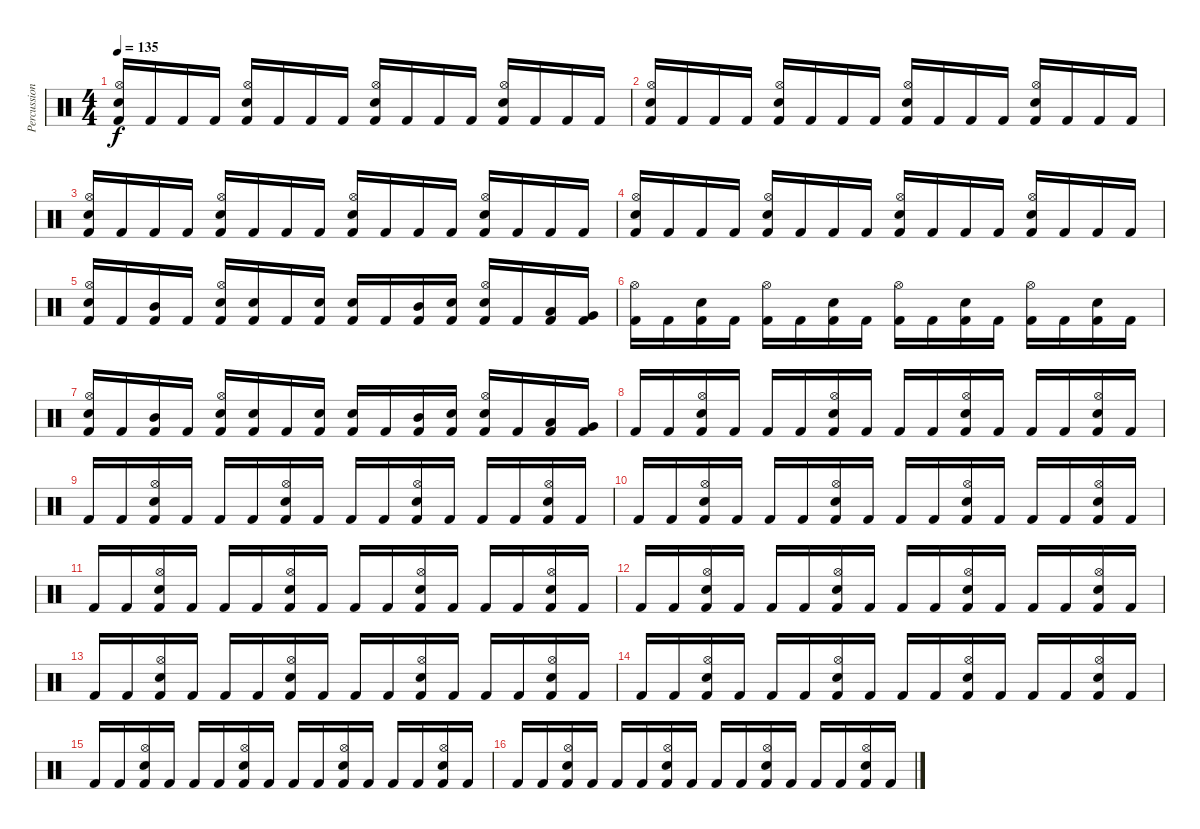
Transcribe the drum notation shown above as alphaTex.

\track ("Percussions" "Percussion") {instrument percussion}
\staff {score}
\articulation defaults
\ts (4 4)
\tempo 135
\clef neutral
\ks c
("Snare (hit) 2" "Hi-Hat (open)" "Kick (hit) 2").16{dy f} "Kick (hit) 2".16 "Kick (hit) 2".16 "Kick (hit) 2".16 ("Snare (hit) 2" "Hi-Hat (open)" "Kick (hit) 2").16 "Kick (hit) 2".16 "Kick (hit) 2".16 "Kick (hit) 2".16 ("Snare (hit) 2" "Hi-Hat (open)" "Kick (hit) 2").16 "Kick (hit) 2".16 "Kick (hit) 2".16 "Kick (hit) 2".16 ("Snare (hit) 2" "Hi-Hat (open)" "Kick (hit) 2").16 "Kick (hit) 2".16 "Kick (hit) 2".16 "Kick (hit) 2".16 |
("Snare (hit) 2" "Hi-Hat (open)" "Kick (hit) 2").16 "Kick (hit) 2".16 "Kick (hit) 2".16 "Kick (hit) 2".16 ("Snare (hit) 2" "Hi-Hat (open)" "Kick (hit) 2").16 "Kick (hit) 2".16 "Kick (hit) 2".16 "Kick (hit) 2".16 ("Snare (hit) 2" "Hi-Hat (open)" "Kick (hit) 2").16 "Kick (hit) 2".16 "Kick (hit) 2".16 "Kick (hit) 2".16 ("Snare (hit) 2" "Hi-Hat (open)" "Kick (hit) 2").16 "Kick (hit) 2".16 "Kick (hit) 2".16 "Kick (hit) 2".16 |
("Snare (hit) 2" "Hi-Hat (open)" "Kick (hit) 2").16 "Kick (hit) 2".16 "Kick (hit) 2".16 "Kick (hit) 2".16 ("Snare (hit) 2" "Hi-Hat (open)" "Kick (hit) 2").16 "Kick (hit) 2".16 "Kick (hit) 2".16 "Kick (hit) 2".16 ("Snare (hit) 2" "Hi-Hat (open)" "Kick (hit) 2").16 "Kick (hit) 2".16 "Kick (hit) 2".16 "Kick (hit) 2".16 ("Snare (hit) 2" "Hi-Hat (open)" "Kick (hit) 2").16 "Kick (hit) 2".16 "Kick (hit) 2".16 "Kick (hit) 2".16 |
("Snare (hit) 2" "Hi-Hat (open)" "Kick (hit) 2").16 "Kick (hit) 2".16 "Kick (hit) 2".16 "Kick (hit) 2".16 ("Snare (hit) 2" "Hi-Hat (open)" "Kick (hit) 2").16 "Kick (hit) 2".16 "Kick (hit) 2".16 "Kick (hit) 2".16 ("Snare (hit) 2" "Hi-Hat (open)" "Kick (hit) 2").16 "Kick (hit) 2".16 "Kick (hit) 2".16 "Kick (hit) 2".16 ("Snare (hit) 2" "Hi-Hat (open)" "Kick (hit) 2").16 "Kick (hit) 2".16 "Kick (hit) 2".16 "Kick (hit) 2".16 |
("Snare (hit) 2" "Hi-Hat (open)" "Kick (hit) 2").16 "Kick (hit) 2".16 ("Mid Tom (hit)" "Kick (hit) 2").16 "Kick (hit) 2".16 ("Snare (hit) 2" "Hi-Hat (open)" "Kick (hit) 2").16 ("Snare (hit) 2" "Kick (hit) 2").16 "Kick (hit) 2".16 ("Snare (hit) 2" "Kick (hit) 2").16 ("Snare (hit) 2" "Kick (hit) 2").16 "Kick (hit) 2".16 ("Mid Tom (hit)" "Kick (hit) 2").16 ("Snare (hit) 2" "Kick (hit) 2").16 ("Snare (hit) 2" "Hi-Hat (open)" "Kick (hit) 2").16 "Kick (hit) 2".16 ("Low Tom (hit)" "Kick (hit) 2").16 ("Very Low Tom (hit)" "Kick (hit) 2").16 |
("Hi-Hat (open)" "Kick (hit) 2").16 "Kick (hit) 2".16 ("Snare (hit) 2" "Kick (hit) 2").16 "Kick (hit) 2".16 ("Hi-Hat (open)" "Kick (hit) 2").16 "Kick (hit) 2".16 ("Snare (hit) 2" "Kick (hit) 2").16 "Kick (hit) 2".16 ("Hi-Hat (open)" "Kick (hit) 2").16 "Kick (hit) 2".16 ("Snare (hit) 2" "Kick (hit) 2").16 "Kick (hit) 2".16 ("Hi-Hat (open)" "Kick (hit) 2").16 "Kick (hit) 2".16 ("Snare (hit) 2" "Kick (hit) 2").16 "Kick (hit) 2".16 |
("Snare (hit) 2" "Hi-Hat (open)" "Kick (hit) 2").16 "Kick (hit) 2".16 ("Mid Tom (hit)" "Kick (hit) 2").16 "Kick (hit) 2".16 ("Snare (hit) 2" "Hi-Hat (open)" "Kick (hit) 2").16 ("Snare (hit) 2" "Kick (hit) 2").16 "Kick (hit) 2".16 ("Snare (hit) 2" "Kick (hit) 2").16 ("Snare (hit) 2" "Kick (hit) 2").16 "Kick (hit) 2".16 ("Mid Tom (hit)" "Kick (hit) 2").16 ("Snare (hit) 2" "Kick (hit) 2").16 ("Snare (hit) 2" "Hi-Hat (open)" "Kick (hit) 2").16 "Kick (hit) 2".16 ("Low Tom (hit)" "Kick (hit) 2").16 ("Very Low Tom (hit)" "Kick (hit) 2").16 |
"Kick (hit) 2".16 "Kick (hit) 2".16 ("Hi-Hat (open)" "Snare (hit) 2" "Kick (hit) 2").16 "Kick (hit) 2".16 "Kick (hit) 2".16 "Kick (hit) 2".16 ("Hi-Hat (open)" "Snare (hit) 2" "Kick (hit) 2").16 "Kick (hit) 2".16 "Kick (hit) 2".16 "Kick (hit) 2".16 ("Hi-Hat (open)" "Snare (hit) 2" "Kick (hit) 2").16 "Kick (hit) 2".16 "Kick (hit) 2".16 "Kick (hit) 2".16 ("Hi-Hat (open)" "Snare (hit) 2" "Kick (hit) 2").16 "Kick (hit) 2".16 |
"Kick (hit) 2".16 "Kick (hit) 2".16 ("Hi-Hat (open)" "Snare (hit) 2" "Kick (hit) 2").16 "Kick (hit) 2".16 "Kick (hit) 2".16 "Kick (hit) 2".16 ("Hi-Hat (open)" "Snare (hit) 2" "Kick (hit) 2").16 "Kick (hit) 2".16 "Kick (hit) 2".16 "Kick (hit) 2".16 ("Hi-Hat (open)" "Snare (hit) 2" "Kick (hit) 2").16 "Kick (hit) 2".16 "Kick (hit) 2".16 "Kick (hit) 2".16 ("Hi-Hat (open)" "Snare (hit) 2" "Kick (hit) 2").16 "Kick (hit) 2".16 |
"Kick (hit) 2".16 "Kick (hit) 2".16 ("Hi-Hat (open)" "Snare (hit) 2" "Kick (hit) 2").16 "Kick (hit) 2".16 "Kick (hit) 2".16 "Kick (hit) 2".16 ("Hi-Hat (open)" "Snare (hit) 2" "Kick (hit) 2").16 "Kick (hit) 2".16 "Kick (hit) 2".16 "Kick (hit) 2".16 ("Hi-Hat (open)" "Snare (hit) 2" "Kick (hit) 2").16 "Kick (hit) 2".16 "Kick (hit) 2".16 "Kick (hit) 2".16 ("Hi-Hat (open)" "Snare (hit) 2" "Kick (hit) 2").16 "Kick (hit) 2".16 |
"Kick (hit) 2".16 "Kick (hit) 2".16 ("Hi-Hat (open)" "Snare (hit) 2" "Kick (hit) 2").16 "Kick (hit) 2".16 "Kick (hit) 2".16 "Kick (hit) 2".16 ("Hi-Hat (open)" "Snare (hit) 2" "Kick (hit) 2").16 "Kick (hit) 2".16 "Kick (hit) 2".16 "Kick (hit) 2".16 ("Hi-Hat (open)" "Snare (hit) 2" "Kick (hit) 2").16 "Kick (hit) 2".16 "Kick (hit) 2".16 "Kick (hit) 2".16 ("Hi-Hat (open)" "Snare (hit) 2" "Kick (hit) 2").16 "Kick (hit) 2".16 |
"Kick (hit) 2".16 "Kick (hit) 2".16 ("Hi-Hat (open)" "Snare (hit) 2" "Kick (hit) 2").16 "Kick (hit) 2".16 "Kick (hit) 2".16 "Kick (hit) 2".16 ("Hi-Hat (open)" "Snare (hit) 2" "Kick (hit) 2").16 "Kick (hit) 2".16 "Kick (hit) 2".16 "Kick (hit) 2".16 ("Hi-Hat (open)" "Snare (hit) 2" "Kick (hit) 2").16 "Kick (hit) 2".16 "Kick (hit) 2".16 "Kick (hit) 2".16 ("Hi-Hat (open)" "Snare (hit) 2" "Kick (hit) 2").16 "Kick (hit) 2".16 |
"Kick (hit) 2".16 "Kick (hit) 2".16 ("Hi-Hat (open)" "Snare (hit) 2" "Kick (hit) 2").16 "Kick (hit) 2".16 "Kick (hit) 2".16 "Kick (hit) 2".16 ("Hi-Hat (open)" "Snare (hit) 2" "Kick (hit) 2").16 "Kick (hit) 2".16 "Kick (hit) 2".16 "Kick (hit) 2".16 ("Hi-Hat (open)" "Snare (hit) 2" "Kick (hit) 2").16 "Kick (hit) 2".16 "Kick (hit) 2".16 "Kick (hit) 2".16 ("Hi-Hat (open)" "Snare (hit) 2" "Kick (hit) 2").16 "Kick (hit) 2".16 |
"Kick (hit) 2".16 "Kick (hit) 2".16 ("Hi-Hat (open)" "Snare (hit) 2" "Kick (hit) 2").16 "Kick (hit) 2".16 "Kick (hit) 2".16 "Kick (hit) 2".16 ("Hi-Hat (open)" "Snare (hit) 2" "Kick (hit) 2").16 "Kick (hit) 2".16 "Kick (hit) 2".16 "Kick (hit) 2".16 ("Hi-Hat (open)" "Snare (hit) 2" "Kick (hit) 2").16 "Kick (hit) 2".16 "Kick (hit) 2".16 "Kick (hit) 2".16 ("Hi-Hat (open)" "Snare (hit) 2" "Kick (hit) 2").16 "Kick (hit) 2".16 |
"Kick (hit) 2".16 "Kick (hit) 2".16 ("Hi-Hat (open)" "Snare (hit) 2" "Kick (hit) 2").16 "Kick (hit) 2".16 "Kick (hit) 2".16 "Kick (hit) 2".16 ("Hi-Hat (open)" "Snare (hit) 2" "Kick (hit) 2").16 "Kick (hit) 2".16 "Kick (hit) 2".16 "Kick (hit) 2".16 ("Hi-Hat (open)" "Snare (hit) 2" "Kick (hit) 2").16 "Kick (hit) 2".16 "Kick (hit) 2".16 "Kick (hit) 2".16 ("Hi-Hat (open)" "Snare (hit) 2" "Kick (hit) 2").16 "Kick (hit) 2".16 |
"Kick (hit) 2".16 "Kick (hit) 2".16 ("Hi-Hat (open)" "Snare (hit) 2" "Kick (hit) 2").16 "Kick (hit) 2".16 "Kick (hit) 2".16 "Kick (hit) 2".16 ("Hi-Hat (open)" "Snare (hit) 2" "Kick (hit) 2").16 "Kick (hit) 2".16 "Kick (hit) 2".16 "Kick (hit) 2".16 ("Hi-Hat (open)" "Snare (hit) 2" "Kick (hit) 2").16 "Kick (hit) 2".16 "Kick (hit) 2".16 "Kick (hit) 2".16 ("Hi-Hat (open)" "Snare (hit) 2" "Kick (hit) 2").16 "Kick (hit) 2".16
